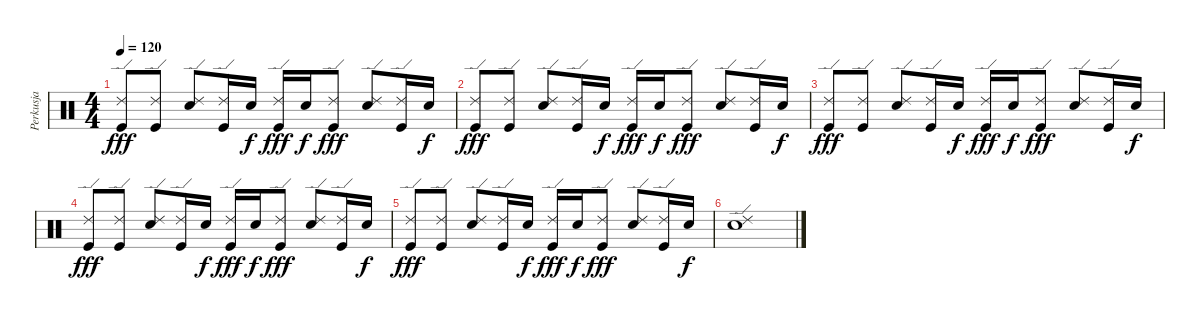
\track ("Perkusja" "Perkusja") {instrument percussion}
\staff {score}
\articulation defaults
\ts (4 4)
\tempo 120
\clef neutral
\ks c
("Ride (edge) 2" "Kick (hit)").8{dy fff} ("Ride (edge) 2" "Kick (hit)").8 ("Ride (edge) 2" "Electric Snare (hit)").8 ("Ride (edge) 2" "Kick (hit)").16 "Electric Snare (hit)".16{dy f} ("Ride (edge) 2" "Kick (hit)").16{dy fff} "Electric Snare (hit)".16{dy f} ("Ride (edge) 2" "Kick (hit)").8{dy fff} ("Ride (edge) 2" "Electric Snare (hit)").8 ("Ride (edge) 2" "Kick (hit)").16 "Electric Snare (hit)".16{dy f} |
("Ride (edge) 2" "Kick (hit)").8{dy fff} ("Ride (edge) 2" "Kick (hit)").8 ("Ride (edge) 2" "Electric Snare (hit)").8 ("Ride (edge) 2" "Kick (hit)").16 "Electric Snare (hit)".16{dy f} ("Ride (edge) 2" "Kick (hit)").16{dy fff} "Electric Snare (hit)".16{dy f} ("Ride (edge) 2" "Kick (hit)").8{dy fff} ("Ride (edge) 2" "Electric Snare (hit)").8 ("Ride (edge) 2" "Kick (hit)").16 "Electric Snare (hit)".16{dy f} |
("Ride (edge) 2" "Kick (hit)").8{dy fff} ("Ride (edge) 2" "Kick (hit)").8 ("Ride (edge) 2" "Electric Snare (hit)").8 ("Ride (edge) 2" "Kick (hit)").16 "Electric Snare (hit)".16{dy f} ("Ride (edge) 2" "Kick (hit)").16{dy fff} "Electric Snare (hit)".16{dy f} ("Ride (edge) 2" "Kick (hit)").8{dy fff} ("Ride (edge) 2" "Electric Snare (hit)").8 ("Ride (edge) 2" "Kick (hit)").16 "Electric Snare (hit)".16{dy f} |
("Ride (edge) 2" "Kick (hit)").8{dy fff} ("Ride (edge) 2" "Kick (hit)").8 ("Ride (edge) 2" "Electric Snare (hit)").8 ("Ride (edge) 2" "Kick (hit)").16 "Electric Snare (hit)".16{dy f} ("Ride (edge) 2" "Kick (hit)").16{dy fff} "Electric Snare (hit)".16{dy f} ("Ride (edge) 2" "Kick (hit)").8{dy fff} ("Ride (edge) 2" "Electric Snare (hit)").8 ("Ride (edge) 2" "Kick (hit)").16 "Electric Snare (hit)".16{dy f} |
("Ride (edge) 2" "Kick (hit)").8{dy fff} ("Ride (edge) 2" "Kick (hit)").8 ("Ride (edge) 2" "Electric Snare (hit)").8 ("Ride (edge) 2" "Kick (hit)").16 "Electric Snare (hit)".16{dy f} ("Ride (edge) 2" "Kick (hit)").16{dy fff} "Electric Snare (hit)".16{dy f} ("Ride (edge) 2" "Kick (hit)").8{dy fff} ("Ride (edge) 2" "Electric Snare (hit)").8 ("Ride (edge) 2" "Kick (hit)").16 "Electric Snare (hit)".16{dy f} |
("Ride (edge) 2" "Electric Snare (hit)").1
